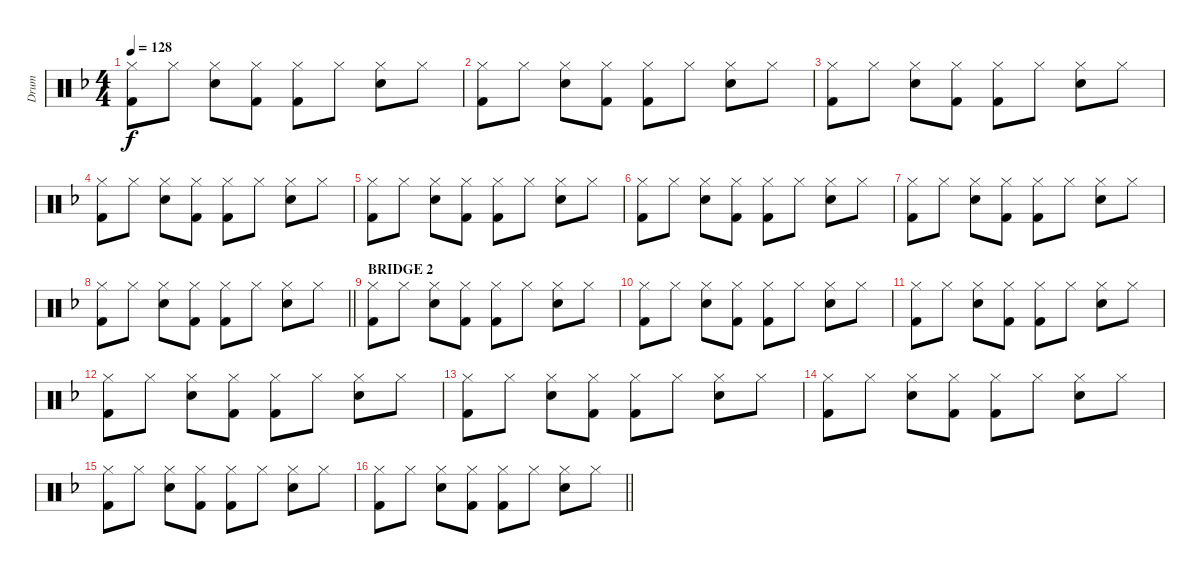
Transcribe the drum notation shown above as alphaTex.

\track ("Drum" "Drum") {instrument percussion}
\staff {score}
\articulation defaults
\ts (4 4)
\tempo 128
\clef neutral
\ks f
("Hi-Hat (closed)" "Kick (hit) 2").8{dy f} "Hi-Hat (closed)".8 ("Hi-Hat (closed)" "Electric Snare (hit)").8 ("Hi-Hat (closed)" "Kick (hit) 2").8 ("Hi-Hat (closed)" "Kick (hit) 2").8 "Hi-Hat (closed)".8 ("Hi-Hat (closed)" "Electric Snare (hit)").8 "Hi-Hat (closed)".8 |
("Hi-Hat (closed)" "Kick (hit) 2").8 "Hi-Hat (closed)".8 ("Hi-Hat (closed)" "Electric Snare (hit)").8 ("Hi-Hat (closed)" "Kick (hit) 2").8 ("Hi-Hat (closed)" "Kick (hit) 2").8 "Hi-Hat (closed)".8 ("Hi-Hat (closed)" "Electric Snare (hit)").8 "Hi-Hat (closed)".8 |
("Hi-Hat (closed)" "Kick (hit) 2").8 "Hi-Hat (closed)".8 ("Hi-Hat (closed)" "Electric Snare (hit)").8 ("Hi-Hat (closed)" "Kick (hit) 2").8 ("Hi-Hat (closed)" "Kick (hit) 2").8 "Hi-Hat (closed)".8 ("Hi-Hat (closed)" "Electric Snare (hit)").8 "Hi-Hat (closed)".8 |
("Hi-Hat (closed)" "Kick (hit) 2").8 "Hi-Hat (closed)".8 ("Hi-Hat (closed)" "Electric Snare (hit)").8 ("Hi-Hat (closed)" "Kick (hit) 2").8 ("Hi-Hat (closed)" "Kick (hit) 2").8 "Hi-Hat (closed)".8 ("Hi-Hat (closed)" "Electric Snare (hit)").8 "Hi-Hat (closed)".8 |
("Hi-Hat (closed)" "Kick (hit) 2").8 "Hi-Hat (closed)".8 ("Hi-Hat (closed)" "Electric Snare (hit)").8 ("Hi-Hat (closed)" "Kick (hit) 2").8 ("Hi-Hat (closed)" "Kick (hit) 2").8 "Hi-Hat (closed)".8 ("Hi-Hat (closed)" "Electric Snare (hit)").8 "Hi-Hat (closed)".8 |
("Hi-Hat (closed)" "Kick (hit) 2").8 "Hi-Hat (closed)".8 ("Hi-Hat (closed)" "Electric Snare (hit)").8 ("Hi-Hat (closed)" "Kick (hit) 2").8 ("Hi-Hat (closed)" "Kick (hit) 2").8 "Hi-Hat (closed)".8 ("Hi-Hat (closed)" "Electric Snare (hit)").8 "Hi-Hat (closed)".8 |
("Hi-Hat (closed)" "Kick (hit) 2").8 "Hi-Hat (closed)".8 ("Hi-Hat (closed)" "Electric Snare (hit)").8 ("Hi-Hat (closed)" "Kick (hit) 2").8 ("Hi-Hat (closed)" "Kick (hit) 2").8 "Hi-Hat (closed)".8 ("Hi-Hat (closed)" "Electric Snare (hit)").8 "Hi-Hat (closed)".8 |
\barLineRight lightlight
("Hi-Hat (closed)" "Kick (hit) 2").8 "Hi-Hat (closed)".8 ("Hi-Hat (closed)" "Electric Snare (hit)").8 ("Hi-Hat (closed)" "Kick (hit) 2").8 ("Hi-Hat (closed)" "Kick (hit) 2").8 "Hi-Hat (closed)".8 ("Hi-Hat (closed)" "Electric Snare (hit)").8 "Hi-Hat (closed)".8 |
\section ("" "BRIDGE 2")
("Hi-Hat (closed)" "Kick (hit) 2").8 "Hi-Hat (closed)".8 ("Hi-Hat (closed)" "Electric Snare (hit)").8 ("Hi-Hat (closed)" "Kick (hit) 2").8 ("Hi-Hat (closed)" "Kick (hit) 2").8 "Hi-Hat (closed)".8 ("Hi-Hat (closed)" "Electric Snare (hit)").8 "Hi-Hat (closed)".8 |
("Hi-Hat (closed)" "Kick (hit) 2").8 "Hi-Hat (closed)".8 ("Hi-Hat (closed)" "Electric Snare (hit)").8 ("Hi-Hat (closed)" "Kick (hit) 2").8 ("Hi-Hat (closed)" "Kick (hit) 2").8 "Hi-Hat (closed)".8 ("Hi-Hat (closed)" "Electric Snare (hit)").8 "Hi-Hat (closed)".8 |
("Hi-Hat (closed)" "Kick (hit) 2").8 "Hi-Hat (closed)".8 ("Hi-Hat (closed)" "Electric Snare (hit)").8 ("Hi-Hat (closed)" "Kick (hit) 2").8 ("Hi-Hat (closed)" "Kick (hit) 2").8 "Hi-Hat (closed)".8 ("Hi-Hat (closed)" "Electric Snare (hit)").8 "Hi-Hat (closed)".8 |
("Hi-Hat (closed)" "Kick (hit) 2").8 "Hi-Hat (closed)".8 ("Hi-Hat (closed)" "Electric Snare (hit)").8 ("Hi-Hat (closed)" "Kick (hit) 2").8 ("Hi-Hat (closed)" "Kick (hit) 2").8 "Hi-Hat (closed)".8 ("Hi-Hat (closed)" "Electric Snare (hit)").8 "Hi-Hat (closed)".8 |
("Hi-Hat (closed)" "Kick (hit) 2").8 "Hi-Hat (closed)".8 ("Hi-Hat (closed)" "Electric Snare (hit)").8 ("Hi-Hat (closed)" "Kick (hit) 2").8 ("Hi-Hat (closed)" "Kick (hit) 2").8 "Hi-Hat (closed)".8 ("Hi-Hat (closed)" "Electric Snare (hit)").8 "Hi-Hat (closed)".8 |
("Hi-Hat (closed)" "Kick (hit) 2").8 "Hi-Hat (closed)".8 ("Hi-Hat (closed)" "Electric Snare (hit)").8 ("Hi-Hat (closed)" "Kick (hit) 2").8 ("Hi-Hat (closed)" "Kick (hit) 2").8 "Hi-Hat (closed)".8 ("Hi-Hat (closed)" "Electric Snare (hit)").8 "Hi-Hat (closed)".8 |
("Hi-Hat (closed)" "Kick (hit) 2").8 "Hi-Hat (closed)".8 ("Hi-Hat (closed)" "Electric Snare (hit)").8 ("Hi-Hat (closed)" "Kick (hit) 2").8 ("Hi-Hat (closed)" "Kick (hit) 2").8 "Hi-Hat (closed)".8 ("Hi-Hat (closed)" "Electric Snare (hit)").8 "Hi-Hat (closed)".8 |
\barLineRight lightlight
("Hi-Hat (closed)" "Kick (hit) 2").8 "Hi-Hat (closed)".8 ("Hi-Hat (closed)" "Electric Snare (hit)").8 ("Hi-Hat (closed)" "Kick (hit) 2").8 ("Hi-Hat (closed)" "Kick (hit) 2").8 "Hi-Hat (closed)".8 ("Hi-Hat (closed)" "Electric Snare (hit)").8 "Hi-Hat (closed)".8
